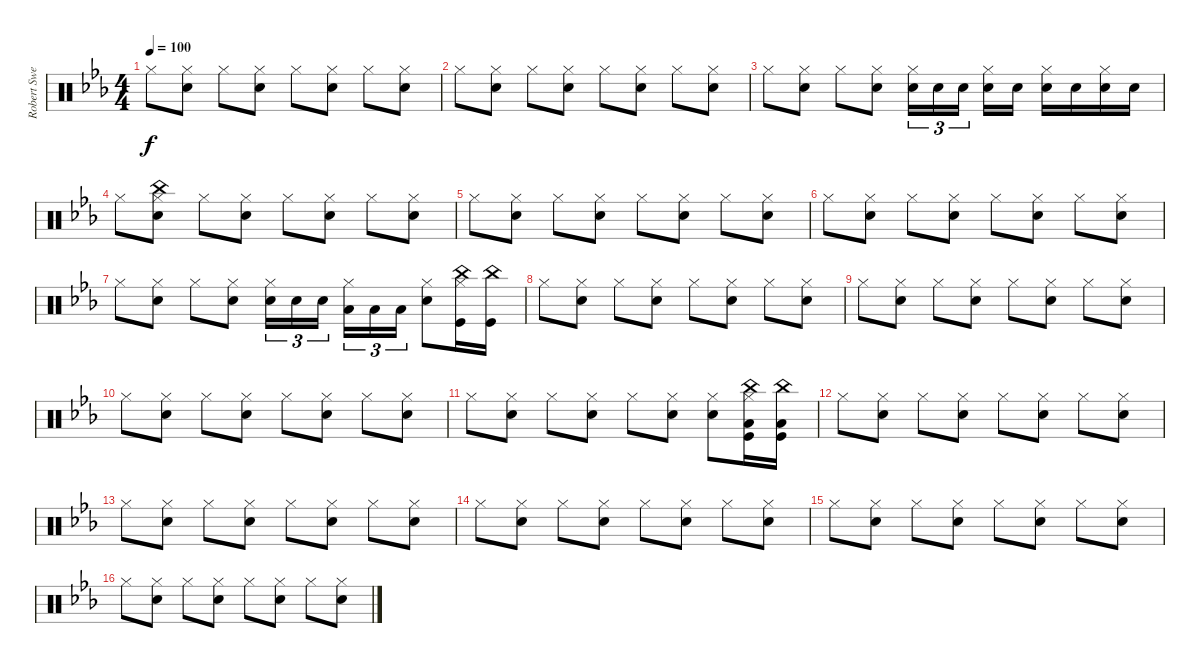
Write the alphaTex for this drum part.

\track ("Robert Sweet" "Robert Swe") {instrument percussion}
\staff {score}
\articulation defaults
\ts (4 4)
\tempo 100
\clef neutral
\ks cminor "Hi-Hat (closed)".8{dy f}
("Hi-Hat (closed)" "Snare (hit) 2").8 "Hi-Hat (closed)".8 ("Hi-Hat (closed)" "Snare (hit) 2").8 "Hi-Hat (closed)".8 ("Hi-Hat (closed)" "Snare (hit) 2").8 "Hi-Hat (closed)".8 ("Hi-Hat (closed)" "Snare (hit) 2").8 |
"Hi-Hat (closed)".8 ("Hi-Hat (closed)" "Snare (hit) 2").8 "Hi-Hat (closed)".8 ("Hi-Hat (closed)" "Snare (hit) 2").8 "Hi-Hat (closed)".8 ("Hi-Hat (closed)" "Snare (hit) 2").8 "Hi-Hat (closed)".8 ("Hi-Hat (closed)" "Snare (hit) 2").8 |
"Hi-Hat (closed)".8 ("Hi-Hat (closed)" "Snare (hit) 2").8 "Hi-Hat (closed)".8 ("Hi-Hat (closed)" "Snare (hit) 2").8 ("Hi-Hat (closed)" "Snare (hit) 2").16{tu (3 2)} "Snare (hit) 2".16{tu (3 2)} "Snare (hit) 2".16{tu (3 2)} ("Hi-Hat (closed)" "Snare (hit) 2").16 "Snare (hit) 2".16 ("Hi-Hat (closed)" "Snare (hit) 2").16 "Snare (hit) 2".16 ("Hi-Hat (closed)" "Snare (hit) 2").16 "Snare (hit) 2".16 |
"Hi-Hat (closed)".8 ("Hi-Hat (closed)" "Snare (hit) 2" "China (hit)").8 "Hi-Hat (closed)".8 ("Hi-Hat (closed)" "Snare (hit) 2").8 "Hi-Hat (closed)".8 ("Hi-Hat (closed)" "Snare (hit) 2").8 "Hi-Hat (closed)".8 ("Hi-Hat (closed)" "Snare (hit) 2").8 |
"Hi-Hat (closed)".8 ("Hi-Hat (closed)" "Snare (hit) 2").8 "Hi-Hat (closed)".8 ("Hi-Hat (closed)" "Snare (hit) 2").8 "Hi-Hat (closed)".8 ("Hi-Hat (closed)" "Snare (hit) 2").8 "Hi-Hat (closed)".8 ("Hi-Hat (closed)" "Snare (hit) 2").8 |
"Hi-Hat (closed)".8 ("Hi-Hat (closed)" "Snare (hit) 2").8 "Hi-Hat (closed)".8 ("Hi-Hat (closed)" "Snare (hit) 2").8 "Hi-Hat (closed)".8 ("Hi-Hat (closed)" "Snare (hit) 2").8 "Hi-Hat (closed)".8 ("Hi-Hat (closed)" "Snare (hit) 2").8 |
"Hi-Hat (closed)".8 ("Hi-Hat (closed)" "Snare (hit) 2").8 "Hi-Hat (closed)".8 ("Hi-Hat (closed)" "Snare (hit) 2").8 ("Hi-Hat (closed)" "Snare (hit) 2").16{tu (3 2)} "Snare (hit) 2".16{tu (3 2)} "Snare (hit) 2".16{tu (3 2)} ("Hi-Hat (closed)" "Low Floor Tom (hit)").16{tu (3 2)} "Low Floor Tom (hit)".16{tu (3 2)} "Low Floor Tom (hit)".16{tu (3 2)} ("Hi-Hat (closed)" "Snare (hit) 2").8 ("Hi-Hat (closed)" "Kick (hit)" "China (hit)").16 ("Kick (hit)" "China (hit)").16 |
"Hi-Hat (closed)".8 ("Hi-Hat (closed)" "Snare (hit) 2").8 "Hi-Hat (closed)".8 ("Hi-Hat (closed)" "Snare (hit) 2").8 "Hi-Hat (closed)".8 ("Hi-Hat (closed)" "Snare (hit) 2").8 "Hi-Hat (closed)".8 ("Hi-Hat (closed)" "Snare (hit) 2").8 |
"Hi-Hat (closed)".8 ("Hi-Hat (closed)" "Snare (hit) 2").8 "Hi-Hat (closed)".8 ("Hi-Hat (closed)" "Snare (hit) 2").8 "Hi-Hat (closed)".8 ("Hi-Hat (closed)" "Snare (hit) 2").8 "Hi-Hat (closed)".8 ("Hi-Hat (closed)" "Snare (hit) 2").8 |
"Hi-Hat (closed)".8 ("Hi-Hat (closed)" "Snare (hit) 2").8 "Hi-Hat (closed)".8 ("Hi-Hat (closed)" "Snare (hit) 2").8 "Hi-Hat (closed)".8 ("Hi-Hat (closed)" "Snare (hit) 2").8 "Hi-Hat (closed)".8 ("Hi-Hat (closed)" "Snare (hit) 2").8 |
"Hi-Hat (closed)".8 ("Hi-Hat (closed)" "Snare (hit) 2").8 "Hi-Hat (closed)".8 ("Hi-Hat (closed)" "Snare (hit) 2").8 "Hi-Hat (closed)".8 ("Hi-Hat (closed)" "Snare (hit) 2").8 ("Hi-Hat (closed)" "Snare (hit) 2").8 ("Hi-Hat (closed)" "Kick (hit)" "Low Floor Tom (hit)" "China (hit)").16 ("Kick (hit)" "Low Floor Tom (hit)" "China (hit)").16 |
"Hi-Hat (closed)".8 ("Hi-Hat (closed)" "Snare (hit) 2").8 "Hi-Hat (closed)".8 ("Hi-Hat (closed)" "Snare (hit) 2").8 "Hi-Hat (closed)".8 ("Hi-Hat (closed)" "Snare (hit) 2").8 "Hi-Hat (closed)".8 ("Hi-Hat (closed)" "Snare (hit) 2").8 |
"Hi-Hat (closed)".8 ("Hi-Hat (closed)" "Snare (hit) 2").8 "Hi-Hat (closed)".8 ("Hi-Hat (closed)" "Snare (hit) 2").8 "Hi-Hat (closed)".8 ("Hi-Hat (closed)" "Snare (hit) 2").8 "Hi-Hat (closed)".8 ("Hi-Hat (closed)" "Snare (hit) 2").8 |
"Hi-Hat (closed)".8 ("Hi-Hat (closed)" "Snare (hit) 2").8 "Hi-Hat (closed)".8 ("Hi-Hat (closed)" "Snare (hit) 2").8 "Hi-Hat (closed)".8 ("Hi-Hat (closed)" "Snare (hit) 2").8 "Hi-Hat (closed)".8 ("Hi-Hat (closed)" "Snare (hit) 2").8 |
"Hi-Hat (closed)".8 ("Hi-Hat (closed)" "Snare (hit) 2").8 "Hi-Hat (closed)".8 ("Hi-Hat (closed)" "Snare (hit) 2").8 "Hi-Hat (closed)".8 ("Hi-Hat (closed)" "Snare (hit) 2").8 "Hi-Hat (closed)".8 ("Hi-Hat (closed)" "Snare (hit) 2").8 |
"Hi-Hat (closed)".8 ("Hi-Hat (closed)" "Snare (hit) 2").8 "Hi-Hat (closed)".8 ("Hi-Hat (closed)" "Snare (hit) 2").8 "Hi-Hat (closed)".8 ("Hi-Hat (closed)" "Snare (hit) 2").8 "Hi-Hat (closed)".8 ("Hi-Hat (closed)" "Snare (hit) 2").8
